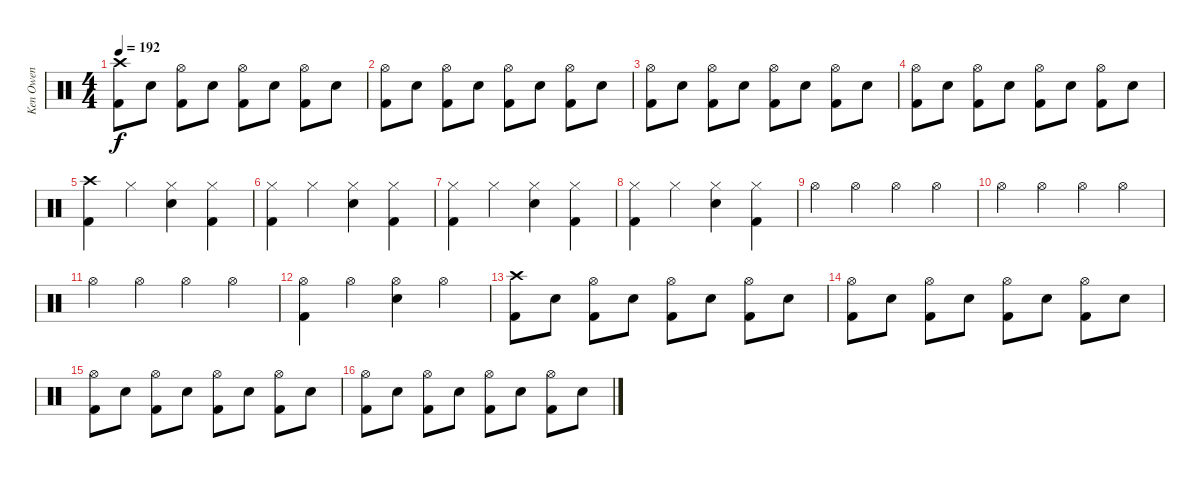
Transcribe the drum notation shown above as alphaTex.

\track ("Ken Owen" "Ken Owen") {instrument percussion}
\staff {score}
\articulation defaults
\ts (4 4)
\tempo 192
\clef neutral
\ks c
("Crash high (hit)" "Kick (hit) 2").8{dy f} "Snare (hit) 2".8 ("Hi-Hat (open)" "Kick (hit) 2").8 "Snare (hit) 2".8 ("Hi-Hat (open)" "Kick (hit) 2").8 "Snare (hit) 2".8 ("Hi-Hat (open)" "Kick (hit) 2").8 "Snare (hit) 2".8 |
("Hi-Hat (open)" "Kick (hit) 2").8 "Snare (hit) 2".8 ("Hi-Hat (open)" "Kick (hit) 2").8 "Snare (hit) 2".8 ("Hi-Hat (open)" "Kick (hit) 2").8 "Snare (hit) 2".8 ("Hi-Hat (open)" "Kick (hit) 2").8 "Snare (hit) 2".8 |
("Hi-Hat (open)" "Kick (hit) 2").8 "Snare (hit) 2".8 ("Hi-Hat (open)" "Kick (hit) 2").8 "Snare (hit) 2".8 ("Hi-Hat (open)" "Kick (hit) 2").8 "Snare (hit) 2".8 ("Hi-Hat (open)" "Kick (hit) 2").8 "Snare (hit) 2".8 |
("Hi-Hat (open)" "Kick (hit) 2").8 "Snare (hit) 2".8 ("Hi-Hat (open)" "Kick (hit) 2").8 "Snare (hit) 2".8 ("Hi-Hat (open)" "Kick (hit) 2").8 "Snare (hit) 2".8 ("Hi-Hat (open)" "Kick (hit) 2").8 "Snare (hit) 2".8 |
("Crash high (hit)" "Kick (hit) 2").4 "Hi-Hat (closed)".4 ("Hi-Hat (closed)" "Snare (hit) 2").4 ("Hi-Hat (closed)" "Kick (hit) 2").4 |
("Hi-Hat (closed)" "Kick (hit) 2").4 "Hi-Hat (closed)".4 ("Hi-Hat (closed)" "Snare (hit) 2").4 ("Hi-Hat (closed)" "Kick (hit) 2").4 |
("Hi-Hat (closed)" "Kick (hit) 2").4 "Hi-Hat (closed)".4 ("Hi-Hat (closed)" "Snare (hit) 2").4 ("Hi-Hat (closed)" "Kick (hit) 2").4 |
("Hi-Hat (closed)" "Kick (hit) 2").4 "Hi-Hat (closed)".4 ("Hi-Hat (closed)" "Snare (hit) 2").4 ("Hi-Hat (closed)" "Kick (hit) 2").4 |
"Hi-Hat (open)".4 "Hi-Hat (open)".4 "Hi-Hat (open)".4 "Hi-Hat (open)".4 |
"Hi-Hat (open)".4 "Hi-Hat (open)".4 "Hi-Hat (open)".4 "Hi-Hat (open)".4 |
"Hi-Hat (open)".4 "Hi-Hat (open)".4 "Hi-Hat (open)".4 "Hi-Hat (open)".4 |
("Hi-Hat (open)" "Kick (hit) 2").4 "Hi-Hat (open)".4 ("Hi-Hat (open)" "Snare (hit) 2").4 "Hi-Hat (open)".4 |
("Crash high (hit)" "Kick (hit) 2").8 "Snare (hit) 2".8 ("Hi-Hat (open)" "Kick (hit) 2").8 "Snare (hit) 2".8 ("Hi-Hat (open)" "Kick (hit) 2").8 "Snare (hit) 2".8 ("Hi-Hat (open)" "Kick (hit) 2").8 "Snare (hit) 2".8 |
("Hi-Hat (open)" "Kick (hit) 2").8 "Snare (hit) 2".8 ("Hi-Hat (open)" "Kick (hit) 2").8 "Snare (hit) 2".8 ("Hi-Hat (open)" "Kick (hit) 2").8 "Snare (hit) 2".8 ("Hi-Hat (open)" "Kick (hit) 2").8 "Snare (hit) 2".8 |
("Hi-Hat (open)" "Kick (hit) 2").8 "Snare (hit) 2".8 ("Hi-Hat (open)" "Kick (hit) 2").8 "Snare (hit) 2".8 ("Hi-Hat (open)" "Kick (hit) 2").8 "Snare (hit) 2".8 ("Hi-Hat (open)" "Kick (hit) 2").8 "Snare (hit) 2".8 |
("Hi-Hat (open)" "Kick (hit) 2").8 "Snare (hit) 2".8 ("Hi-Hat (open)" "Kick (hit) 2").8 "Snare (hit) 2".8 ("Hi-Hat (open)" "Kick (hit) 2").8 "Snare (hit) 2".8 ("Hi-Hat (open)" "Kick (hit) 2").8 "Snare (hit) 2".8
